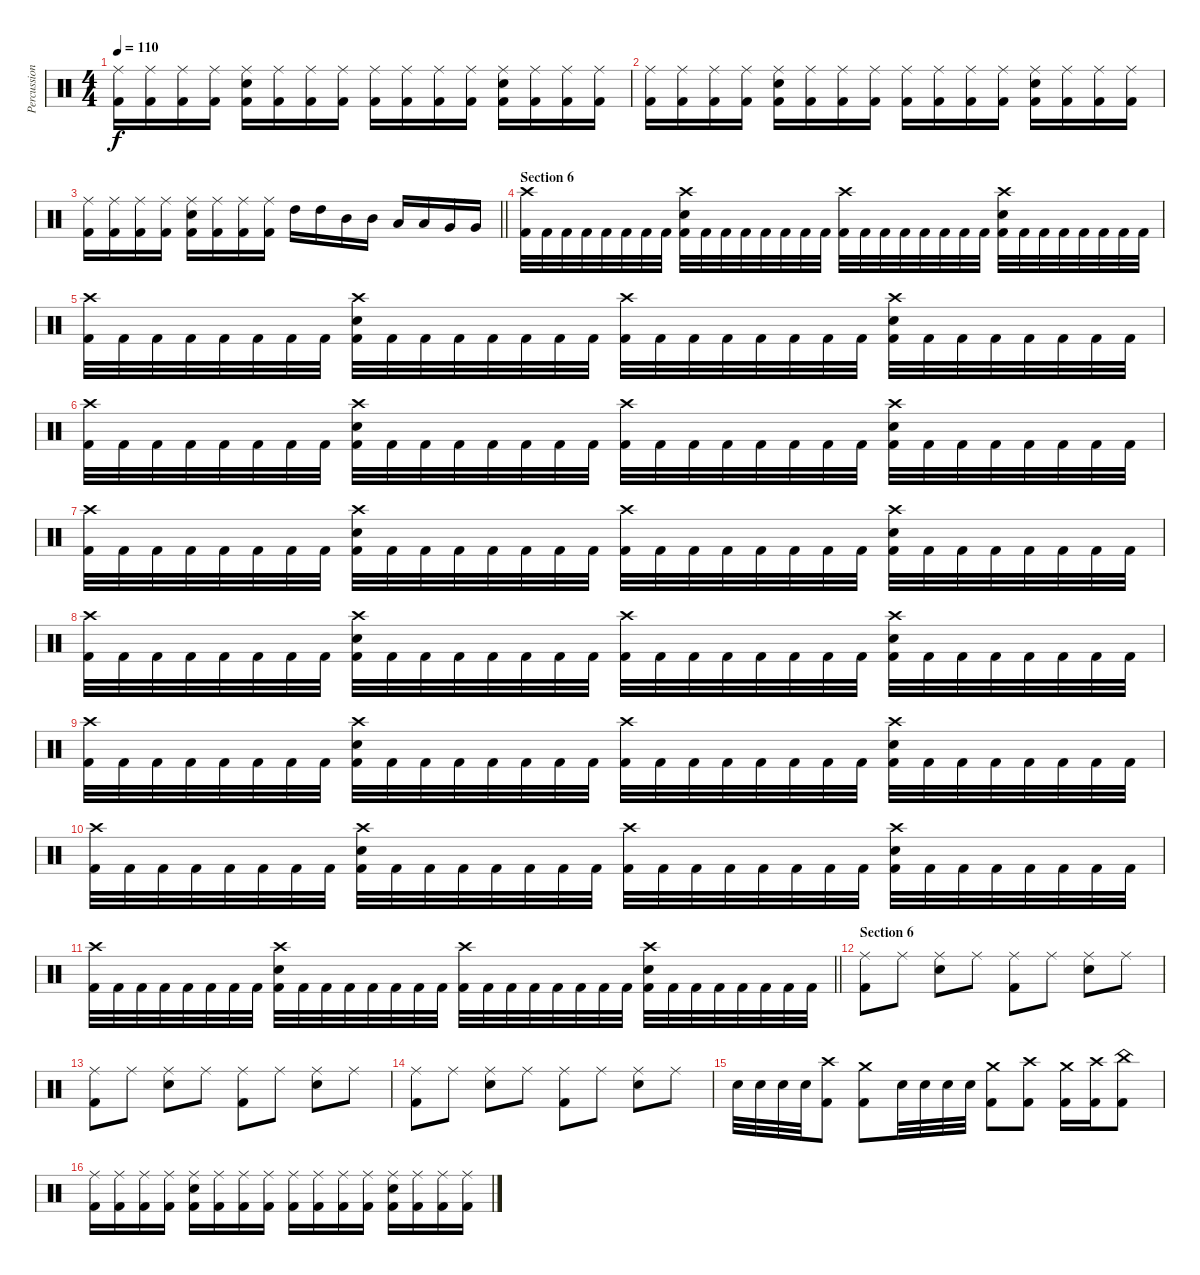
\track ("Percussions" "Percussion") {instrument percussion}
\staff {score}
\articulation defaults
\ts (4 4)
\tempo 110
\clef neutral
\ks c
("Kick (hit) 2" "Ride (middle)").16{dy f} ("Kick (hit) 2" "Ride (middle)").16 ("Kick (hit) 2" "Ride (middle)").16 ("Kick (hit) 2" "Ride (middle)").16 ("Kick (hit) 2" "Electric Snare (hit)" "Ride (middle)").16 ("Kick (hit) 2" "Ride (middle)").16 ("Kick (hit) 2" "Ride (middle)").16 ("Kick (hit) 2" "Ride (middle)").16 ("Kick (hit) 2" "Ride (middle)").16 ("Kick (hit) 2" "Ride (middle)").16 ("Kick (hit) 2" "Ride (middle)").16 ("Kick (hit) 2" "Ride (middle)").16 ("Kick (hit) 2" "Electric Snare (hit)" "Ride (middle)").16 ("Kick (hit) 2" "Ride (middle)").16 ("Kick (hit) 2" "Ride (middle)").16 ("Kick (hit) 2" "Ride (middle)").16 |
("Kick (hit) 2" "Ride (middle)").16 ("Kick (hit) 2" "Ride (middle)").16 ("Kick (hit) 2" "Ride (middle)").16 ("Kick (hit) 2" "Ride (middle)").16 ("Kick (hit) 2" "Electric Snare (hit)" "Ride (middle)").16 ("Kick (hit) 2" "Ride (middle)").16 ("Kick (hit) 2" "Ride (middle)").16 ("Kick (hit) 2" "Ride (middle)").16 ("Kick (hit) 2" "Ride (middle)").16 ("Kick (hit) 2" "Ride (middle)").16 ("Kick (hit) 2" "Ride (middle)").16 ("Kick (hit) 2" "Ride (middle)").16 ("Kick (hit) 2" "Electric Snare (hit)" "Ride (middle)").16 ("Kick (hit) 2" "Ride (middle)").16 ("Kick (hit) 2" "Ride (middle)").16 ("Kick (hit) 2" "Ride (middle)").16 |
\barLineRight lightlight
("Kick (hit) 2" "Ride (middle)").16 ("Kick (hit) 2" "Ride (middle)").16 ("Kick (hit) 2" "Ride (middle)").16 ("Kick (hit) 2" "Ride (middle)").16 ("Kick (hit) 2" "Electric Snare (hit)" "Ride (middle)").16 ("Kick (hit) 2" "Ride (middle)").16 ("Kick (hit) 2" "Ride (middle)").16 ("Kick (hit) 2" "Ride (middle)").16 "High Tom (hit)".16 "High Tom (hit)".16 "Mid Tom (hit)".16 "Mid Tom (hit)".16 "Low Tom (hit)".16 "Low Tom (hit)".16 "Very Low Tom (hit)".16 "Very Low Tom (hit)".16 |
\section ("" "Section 6")
("Kick (hit) 2" "Crash high (hit)").32 "Kick (hit) 2".32 "Kick (hit) 2".32 "Kick (hit) 2".32 "Kick (hit) 2".32 "Kick (hit) 2".32 "Kick (hit) 2".32 "Kick (hit) 2".32 ("Kick (hit) 2" "Electric Snare (hit)" "Crash high (hit)").32 "Kick (hit) 2".32 "Kick (hit) 2".32 "Kick (hit) 2".32 "Kick (hit) 2".32 "Kick (hit) 2".32 "Kick (hit) 2".32 "Kick (hit) 2".32 ("Kick (hit) 2" "Crash high (hit)").32 "Kick (hit) 2".32 "Kick (hit) 2".32 "Kick (hit) 2".32 "Kick (hit) 2".32 "Kick (hit) 2".32 "Kick (hit) 2".32 "Kick (hit) 2".32 ("Kick (hit) 2" "Electric Snare (hit)" "Crash high (hit)").32 "Kick (hit) 2".32 "Kick (hit) 2".32 "Kick (hit) 2".32 "Kick (hit) 2".32 "Kick (hit) 2".32 "Kick (hit) 2".32 "Kick (hit) 2".32 |
("Kick (hit) 2" "Crash high (hit)").32 "Kick (hit) 2".32 "Kick (hit) 2".32 "Kick (hit) 2".32 "Kick (hit) 2".32 "Kick (hit) 2".32 "Kick (hit) 2".32 "Kick (hit) 2".32 ("Kick (hit) 2" "Electric Snare (hit)" "Crash high (hit)").32 "Kick (hit) 2".32 "Kick (hit) 2".32 "Kick (hit) 2".32 "Kick (hit) 2".32 "Kick (hit) 2".32 "Kick (hit) 2".32 "Kick (hit) 2".32 ("Kick (hit) 2" "Crash high (hit)").32 "Kick (hit) 2".32 "Kick (hit) 2".32 "Kick (hit) 2".32 "Kick (hit) 2".32 "Kick (hit) 2".32 "Kick (hit) 2".32 "Kick (hit) 2".32 ("Kick (hit) 2" "Electric Snare (hit)" "Crash high (hit)").32 "Kick (hit) 2".32 "Kick (hit) 2".32 "Kick (hit) 2".32 "Kick (hit) 2".32 "Kick (hit) 2".32 "Kick (hit) 2".32 "Kick (hit) 2".32 |
("Kick (hit) 2" "Crash high (hit)").32 "Kick (hit) 2".32 "Kick (hit) 2".32 "Kick (hit) 2".32 "Kick (hit) 2".32 "Kick (hit) 2".32 "Kick (hit) 2".32 "Kick (hit) 2".32 ("Kick (hit) 2" "Electric Snare (hit)" "Crash high (hit)").32 "Kick (hit) 2".32 "Kick (hit) 2".32 "Kick (hit) 2".32 "Kick (hit) 2".32 "Kick (hit) 2".32 "Kick (hit) 2".32 "Kick (hit) 2".32 ("Kick (hit) 2" "Crash high (hit)").32 "Kick (hit) 2".32 "Kick (hit) 2".32 "Kick (hit) 2".32 "Kick (hit) 2".32 "Kick (hit) 2".32 "Kick (hit) 2".32 "Kick (hit) 2".32 ("Kick (hit) 2" "Electric Snare (hit)" "Crash high (hit)").32 "Kick (hit) 2".32 "Kick (hit) 2".32 "Kick (hit) 2".32 "Kick (hit) 2".32 "Kick (hit) 2".32 "Kick (hit) 2".32 "Kick (hit) 2".32 |
("Kick (hit) 2" "Crash high (hit)").32 "Kick (hit) 2".32 "Kick (hit) 2".32 "Kick (hit) 2".32 "Kick (hit) 2".32 "Kick (hit) 2".32 "Kick (hit) 2".32 "Kick (hit) 2".32 ("Kick (hit) 2" "Electric Snare (hit)" "Crash high (hit)").32 "Kick (hit) 2".32 "Kick (hit) 2".32 "Kick (hit) 2".32 "Kick (hit) 2".32 "Kick (hit) 2".32 "Kick (hit) 2".32 "Kick (hit) 2".32 ("Kick (hit) 2" "Crash high (hit)").32 "Kick (hit) 2".32 "Kick (hit) 2".32 "Kick (hit) 2".32 "Kick (hit) 2".32 "Kick (hit) 2".32 "Kick (hit) 2".32 "Kick (hit) 2".32 ("Kick (hit) 2" "Electric Snare (hit)" "Crash high (hit)").32 "Kick (hit) 2".32 "Kick (hit) 2".32 "Kick (hit) 2".32 "Kick (hit) 2".32 "Kick (hit) 2".32 "Kick (hit) 2".32 "Kick (hit) 2".32 |
("Kick (hit) 2" "Crash high (hit)").32 "Kick (hit) 2".32 "Kick (hit) 2".32 "Kick (hit) 2".32 "Kick (hit) 2".32 "Kick (hit) 2".32 "Kick (hit) 2".32 "Kick (hit) 2".32 ("Kick (hit) 2" "Electric Snare (hit)" "Crash high (hit)").32 "Kick (hit) 2".32 "Kick (hit) 2".32 "Kick (hit) 2".32 "Kick (hit) 2".32 "Kick (hit) 2".32 "Kick (hit) 2".32 "Kick (hit) 2".32 ("Kick (hit) 2" "Crash high (hit)").32 "Kick (hit) 2".32 "Kick (hit) 2".32 "Kick (hit) 2".32 "Kick (hit) 2".32 "Kick (hit) 2".32 "Kick (hit) 2".32 "Kick (hit) 2".32 ("Kick (hit) 2" "Electric Snare (hit)" "Crash high (hit)").32 "Kick (hit) 2".32 "Kick (hit) 2".32 "Kick (hit) 2".32 "Kick (hit) 2".32 "Kick (hit) 2".32 "Kick (hit) 2".32 "Kick (hit) 2".32 |
("Kick (hit) 2" "Crash high (hit)").32 "Kick (hit) 2".32 "Kick (hit) 2".32 "Kick (hit) 2".32 "Kick (hit) 2".32 "Kick (hit) 2".32 "Kick (hit) 2".32 "Kick (hit) 2".32 ("Kick (hit) 2" "Electric Snare (hit)" "Crash high (hit)").32 "Kick (hit) 2".32 "Kick (hit) 2".32 "Kick (hit) 2".32 "Kick (hit) 2".32 "Kick (hit) 2".32 "Kick (hit) 2".32 "Kick (hit) 2".32 ("Kick (hit) 2" "Crash high (hit)").32 "Kick (hit) 2".32 "Kick (hit) 2".32 "Kick (hit) 2".32 "Kick (hit) 2".32 "Kick (hit) 2".32 "Kick (hit) 2".32 "Kick (hit) 2".32 ("Kick (hit) 2" "Electric Snare (hit)" "Crash high (hit)").32 "Kick (hit) 2".32 "Kick (hit) 2".32 "Kick (hit) 2".32 "Kick (hit) 2".32 "Kick (hit) 2".32 "Kick (hit) 2".32 "Kick (hit) 2".32 |
("Kick (hit) 2" "Crash high (hit)").32 "Kick (hit) 2".32 "Kick (hit) 2".32 "Kick (hit) 2".32 "Kick (hit) 2".32 "Kick (hit) 2".32 "Kick (hit) 2".32 "Kick (hit) 2".32 ("Kick (hit) 2" "Electric Snare (hit)" "Crash high (hit)").32 "Kick (hit) 2".32 "Kick (hit) 2".32 "Kick (hit) 2".32 "Kick (hit) 2".32 "Kick (hit) 2".32 "Kick (hit) 2".32 "Kick (hit) 2".32 ("Kick (hit) 2" "Crash high (hit)").32 "Kick (hit) 2".32 "Kick (hit) 2".32 "Kick (hit) 2".32 "Kick (hit) 2".32 "Kick (hit) 2".32 "Kick (hit) 2".32 "Kick (hit) 2".32 ("Kick (hit) 2" "Electric Snare (hit)" "Crash high (hit)").32 "Kick (hit) 2".32 "Kick (hit) 2".32 "Kick (hit) 2".32 "Kick (hit) 2".32 "Kick (hit) 2".32 "Kick (hit) 2".32 "Kick (hit) 2".32 |
\barLineRight lightlight
("Kick (hit) 2" "Crash high (hit)").32 "Kick (hit) 2".32 "Kick (hit) 2".32 "Kick (hit) 2".32 "Kick (hit) 2".32 "Kick (hit) 2".32 "Kick (hit) 2".32 "Kick (hit) 2".32 ("Kick (hit) 2" "Electric Snare (hit)" "Crash high (hit)").32 "Kick (hit) 2".32 "Kick (hit) 2".32 "Kick (hit) 2".32 "Kick (hit) 2".32 "Kick (hit) 2".32 "Kick (hit) 2".32 "Kick (hit) 2".32 ("Kick (hit) 2" "Crash high (hit)").32 "Kick (hit) 2".32 "Kick (hit) 2".32 "Kick (hit) 2".32 "Kick (hit) 2".32 "Kick (hit) 2".32 "Kick (hit) 2".32 "Kick (hit) 2".32 ("Kick (hit) 2" "Electric Snare (hit)" "Crash high (hit)").32 "Kick (hit) 2".32 "Kick (hit) 2".32 "Kick (hit) 2".32 "Kick (hit) 2".32 "Kick (hit) 2".32 "Kick (hit) 2".32 "Kick (hit) 2".32 |
\section ("" "Section 6")
("Kick (hit) 2" "Ride (middle)").8 "Ride (middle)".8 ("Electric Snare (hit)" "Ride (middle)").8 "Ride (middle)".8 ("Kick (hit) 2" "Ride (middle)").8 "Ride (middle)".8 ("Electric Snare (hit)" "Ride (middle)").8 "Ride (middle)".8 |
("Kick (hit) 2" "Ride (middle)").8 "Ride (middle)".8 ("Electric Snare (hit)" "Ride (middle)").8 "Ride (middle)".8 ("Kick (hit) 2" "Ride (middle)").8 "Ride (middle)".8 ("Electric Snare (hit)" "Ride (middle)").8 "Ride (middle)".8 |
("Kick (hit) 2" "Ride (middle)").8 "Ride (middle)".8 ("Electric Snare (hit)" "Ride (middle)").8 "Ride (middle)".8 ("Kick (hit) 2" "Ride (middle)").8 "Ride (middle)".8 ("Electric Snare (hit)" "Ride (middle)").8 "Ride (middle)".8 |
"Electric Snare (hit)".32 "Electric Snare (hit)".32 "Electric Snare (hit)".32 "Electric Snare (hit)".32 ("Kick (hit) 2" "Crash high (hit)").8 ("Kick (hit) 2" "Crash medium (hit)").8 "Electric Snare (hit)".32 "Electric Snare (hit)".32 "Electric Snare (hit)".32 "Electric Snare (hit)".32 ("Kick (hit) 2" "Crash medium (hit)").8 ("Kick (hit) 2" "Crash high (hit)").8 ("Kick (hit) 2" "Crash medium (hit)").16 ("Kick (hit) 2" "Crash high (hit)").16 ("Kick (hit) 2" "China (hit)").8 |
("Kick (hit) 2" "Ride (middle)").16 ("Kick (hit) 2" "Ride (middle)").16 ("Kick (hit) 2" "Ride (middle)").16 ("Kick (hit) 2" "Ride (middle)").16 ("Kick (hit) 2" "Electric Snare (hit)" "Ride (middle)").16 ("Kick (hit) 2" "Ride (middle)").16 ("Kick (hit) 2" "Ride (middle)").16 ("Kick (hit) 2" "Ride (middle)").16 ("Kick (hit) 2" "Ride (middle)").16 ("Kick (hit) 2" "Ride (middle)").16 ("Kick (hit) 2" "Ride (middle)").16 ("Kick (hit) 2" "Ride (middle)").16 ("Kick (hit) 2" "Electric Snare (hit)" "Ride (middle)").16 ("Kick (hit) 2" "Ride (middle)").16 ("Kick (hit) 2" "Ride (middle)").16 ("Kick (hit) 2" "Ride (middle)").16
